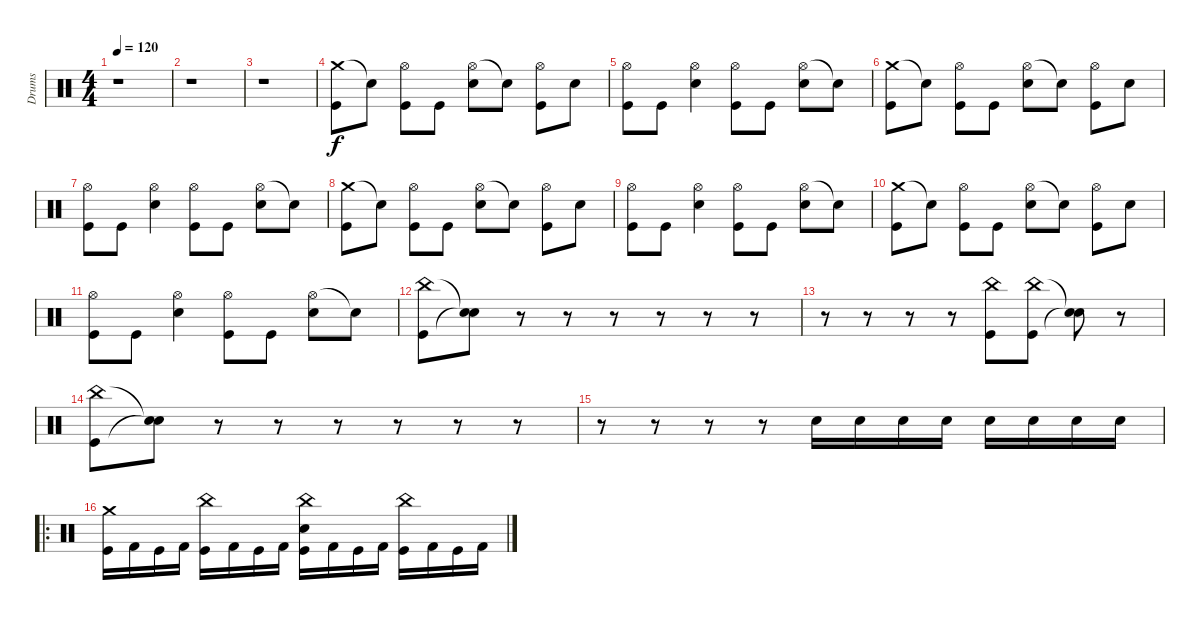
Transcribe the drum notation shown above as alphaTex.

\track ("Drums" "Drums") {instrument percussion}
\staff {score}
\articulation defaults
\ts (4 4)
\tempo 120
\clef neutral
\ks c
r.1{dy f} |
r.1 |
r.1 |
("Crash medium (hit)" "Kick (hit)").8 "Snare (hit)"{t}.8 ("Hi-Hat (open)" "Kick (hit)").8 "Kick (hit)".8 ("Hi-Hat (open)" "Electric Snare (hit)").8 "Snare (hit)"{t}.8 ("Hi-Hat (open)" "Kick (hit)").8 "Electric Snare (hit)".8 |
("Hi-Hat (open)" "Kick (hit)").8 "Kick (hit)".8 ("Hi-Hat (open)" "Electric Snare (hit)").4 ("Hi-Hat (open)" "Kick (hit)").8 "Kick (hit)".8 ("Hi-Hat (open)" "Electric Snare (hit)").8 "Snare (hit)"{t}.8 |
("Crash medium (hit)" "Kick (hit)").8 "Snare (hit)"{t}.8 ("Hi-Hat (open)" "Kick (hit)").8 "Kick (hit)".8 ("Hi-Hat (open)" "Electric Snare (hit)").8 "Snare (hit)"{t}.8 ("Hi-Hat (open)" "Kick (hit)").8 "Electric Snare (hit)".8 |
("Hi-Hat (open)" "Kick (hit)").8 "Kick (hit)".8 ("Hi-Hat (open)" "Electric Snare (hit)").4 ("Hi-Hat (open)" "Kick (hit)").8 "Kick (hit)".8 ("Hi-Hat (open)" "Electric Snare (hit)").8 "Snare (hit)"{t}.8 |
("Crash medium (hit)" "Kick (hit)").8 "Snare (hit)"{t}.8 ("Hi-Hat (open)" "Kick (hit)").8 "Kick (hit)".8 ("Hi-Hat (open)" "Electric Snare (hit)").8 "Snare (hit)"{t}.8 ("Hi-Hat (open)" "Kick (hit)").8 "Electric Snare (hit)".8 |
("Hi-Hat (open)" "Kick (hit)").8 "Kick (hit)".8 ("Hi-Hat (open)" "Electric Snare (hit)").4 ("Hi-Hat (open)" "Kick (hit)").8 "Kick (hit)".8 ("Hi-Hat (open)" "Electric Snare (hit)").8 "Snare (hit)"{t}.8 |
("Crash medium (hit)" "Kick (hit)").8 "Snare (hit)"{t}.8 ("Hi-Hat (open)" "Kick (hit)").8 "Kick (hit)".8 ("Hi-Hat (open)" "Electric Snare (hit)").8 "Snare (hit)"{t}.8 ("Hi-Hat (open)" "Kick (hit)").8 "Electric Snare (hit)".8 |
("Hi-Hat (open)" "Kick (hit)").8 "Kick (hit)".8 ("Hi-Hat (open)" "Electric Snare (hit)").4 ("Hi-Hat (open)" "Kick (hit)").8 "Kick (hit)".8 ("Hi-Hat (open)" "Electric Snare (hit)").8 "Snare (hit)"{t}.8 |
("China (hit)" "Kick (hit)").8 ("Snare (hit)"{t} "Snare (hit)"{t}).8 r.8 r.8 r.8 r.8 r.8 r.8 |
r.8 r.8 r.8 r.8 ("China (hit)" "Kick (hit)").8 ("China (hit)" "Kick (hit)").8 ("Snare (hit)"{t} "Snare (hit)"{t}).8 r.8 |
("China (hit)" "Kick (hit)").8 ("Snare (hit)"{t} "Snare (hit)"{t}).8 r.8 r.8 r.8 r.8 r.8 r.8 |
r.8 r.8 r.8 r.8 "Electric Snare (hit)".16 "Electric Snare (hit)".16 "Electric Snare (hit)".16 "Electric Snare (hit)".16 "Electric Snare (hit)".16 "Electric Snare (hit)".16 "Electric Snare (hit)".16 "Electric Snare (hit)".16 |
\ro
("Crash medium (hit)" "Kick (hit)").16 "Kick (hit) 2".16 "Kick (hit)".16 "Kick (hit) 2".16 ("China (hit)" "Kick (hit)").16 "Kick (hit) 2".16 "Kick (hit)".16 "Kick (hit) 2".16 ("China (hit)" "Electric Snare (hit)" "Kick (hit)").16 "Kick (hit) 2".16 "Kick (hit)".16 "Kick (hit) 2".16 ("China (hit)" "Kick (hit)").16 "Kick (hit) 2".16 "Kick (hit)".16 "Kick (hit) 2".16
